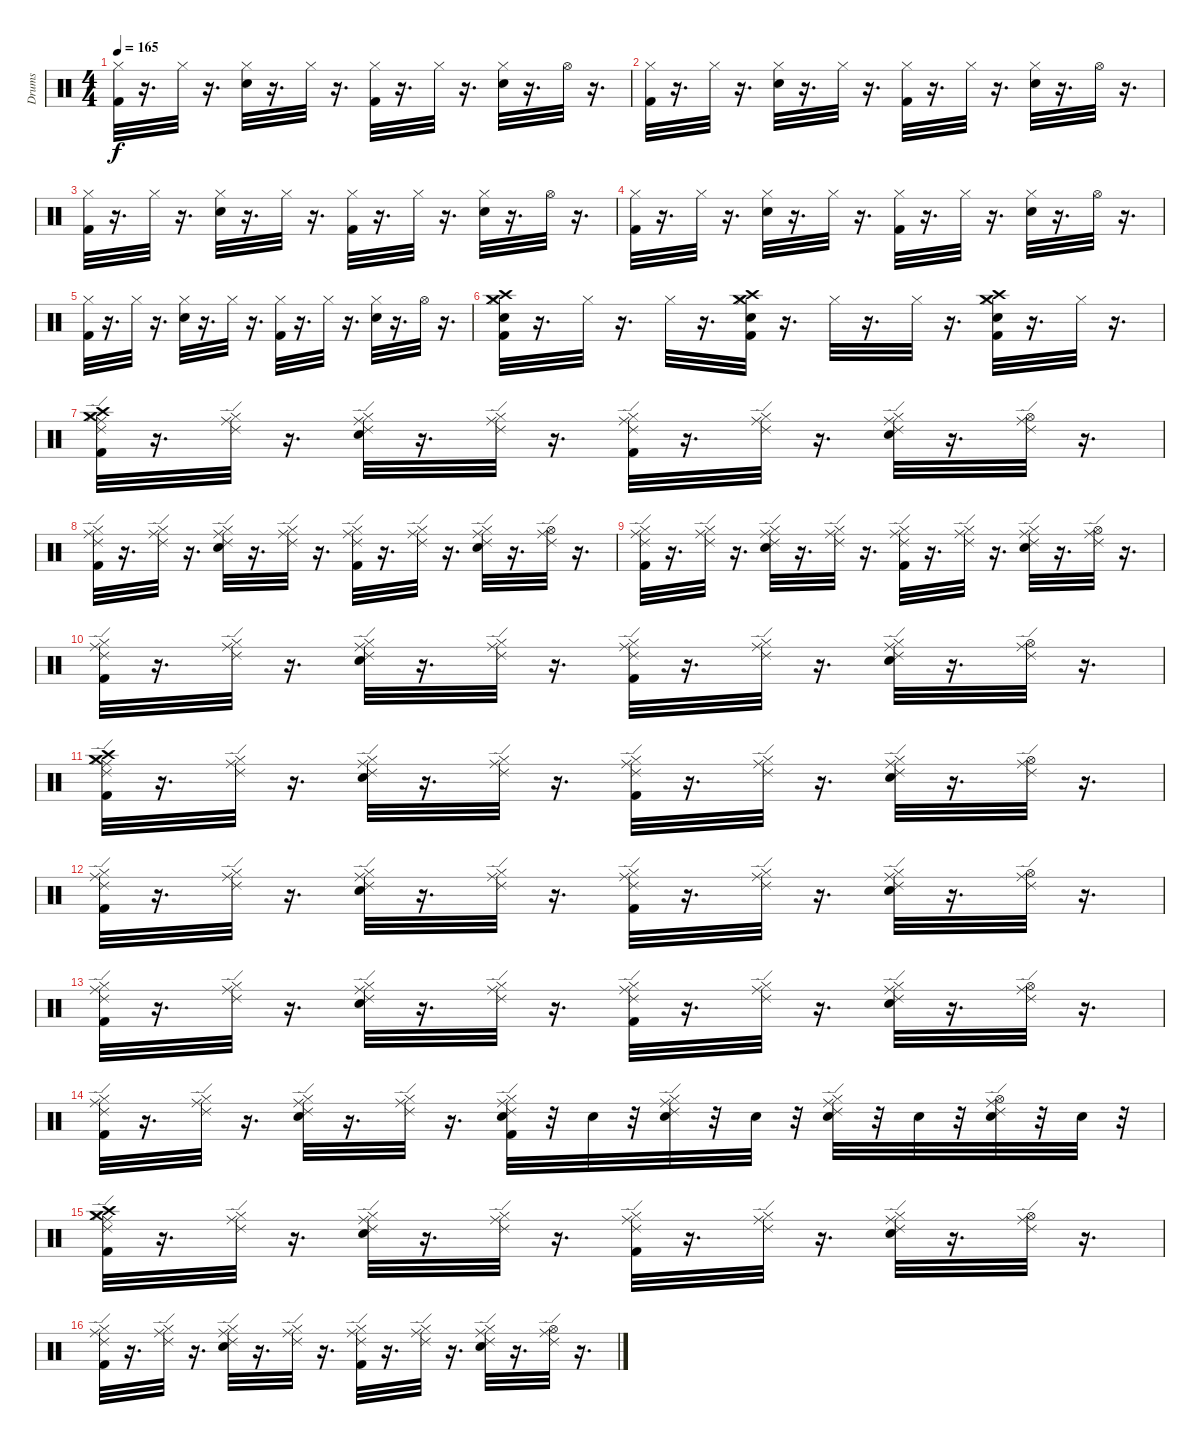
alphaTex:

\track ("Drums" "Drums") {instrument percussion}
\staff {score}
\articulation defaults
\ts (4 4)
\tempo 165
\clef neutral
\ks c
("Kick (hit) 2" "Hi-Hat (closed)").32{dy f} r.16{d} "Hi-Hat (closed)".32 r.16{d} ("Hi-Hat (closed)" "Electric Snare (hit)").32 r.16{d} "Hi-Hat (closed)".32 r.16{d} ("Kick (hit) 2" "Hi-Hat (closed)").32 r.16{d} "Hi-Hat (closed)".32 r.16{d} ("Electric Snare (hit)" "Hi-Hat (closed)").32 r.16{d} "Hi-Hat (open)".32 r.16{d} |
("Kick (hit) 2" "Hi-Hat (closed)").32 r.16{d} "Hi-Hat (closed)".32 r.16{d} ("Hi-Hat (closed)" "Electric Snare (hit)").32 r.16{d} "Hi-Hat (closed)".32 r.16{d} ("Kick (hit) 2" "Hi-Hat (closed)").32 r.16{d} "Hi-Hat (closed)".32 r.16{d} ("Electric Snare (hit)" "Hi-Hat (closed)").32 r.16{d} "Hi-Hat (open)".32 r.16{d} |
("Kick (hit) 2" "Hi-Hat (closed)").32 r.16{d} "Hi-Hat (closed)".32 r.16{d} ("Hi-Hat (closed)" "Electric Snare (hit)").32 r.16{d} "Hi-Hat (closed)".32 r.16{d} ("Kick (hit) 2" "Hi-Hat (closed)").32 r.16{d} "Hi-Hat (closed)".32 r.16{d} ("Electric Snare (hit)" "Hi-Hat (closed)").32 r.16{d} "Hi-Hat (open)".32 r.16{d} |
("Kick (hit) 2" "Hi-Hat (closed)").32 r.16{d} "Hi-Hat (closed)".32 r.16{d} ("Hi-Hat (closed)" "Electric Snare (hit)").32 r.16{d} "Hi-Hat (closed)".32 r.16{d} ("Kick (hit) 2" "Hi-Hat (closed)").32 r.16{d} "Hi-Hat (closed)".32 r.16{d} ("Electric Snare (hit)" "Hi-Hat (closed)").32 r.16{d} "Hi-Hat (open)".32 r.16{d} |
("Kick (hit) 2" "Hi-Hat (closed)").32 r.16{d} "Hi-Hat (closed)".32 r.16{d} ("Hi-Hat (closed)" "Electric Snare (hit)").32 r.16{d} "Hi-Hat (closed)".32 r.16{d} ("Kick (hit) 2" "Hi-Hat (closed)").32 r.16{d} "Hi-Hat (closed)".32 r.16{d} ("Electric Snare (hit)" "Hi-Hat (closed)").32 r.16{d} "Hi-Hat (open)".32 r.16{d} |
("Kick (hit) 2" "Electric Snare (hit)" "Crash medium (hit)" "Crash high (hit)" "Hi-Hat (closed)").32 r.16{d} "Hi-Hat (closed)".32 r.16{d} "Hi-Hat (closed)".32 r.16{d} ("Electric Snare (hit)" "Crash high (hit)" "Crash medium (hit)" "Hi-Hat (closed)" "Kick (hit) 2").32 r.16{d} "Hi-Hat (closed)".32 r.16{d} "Hi-Hat (closed)".32 r.16{d} ("Kick (hit) 2" "Electric Snare (hit)" "Crash high (hit)" "Crash medium (hit)" "Hi-Hat (closed)").32 r.16{d} "Hi-Hat (closed)".32 r.16{d} |
("Ride (edge) 2" "Ride (middle)" "Kick (hit) 2" "Hi-Hat (closed)" "Crash high (hit)" "Crash medium (hit)").32 r.16{d} ("Ride (edge) 2" "Ride (middle)" "Hi-Hat (closed)").32 r.16{d} ("Ride (edge) 2" "Ride (middle)" "Hi-Hat (closed)" "Electric Snare (hit)").32 r.16{d} ("Ride (edge) 2" "Ride (middle)" "Hi-Hat (closed)").32 r.16{d} ("Ride (edge) 2" "Ride (middle)" "Kick (hit) 2" "Hi-Hat (closed)").32 r.16{d} ("Ride (edge) 2" "Ride (middle)" "Hi-Hat (closed)").32 r.16{d} ("Ride (edge) 2" "Ride (middle)" "Electric Snare (hit)" "Hi-Hat (closed)").32 r.16{d} ("Ride (edge) 2" "Ride (middle)" "Hi-Hat (open)").32 r.16{d} |
("Ride (edge) 2" "Ride (middle)" "Kick (hit) 2" "Hi-Hat (closed)").32 r.16{d} ("Ride (edge) 2" "Ride (middle)" "Hi-Hat (closed)").32 r.16{d} ("Ride (edge) 2" "Ride (middle)" "Hi-Hat (closed)" "Electric Snare (hit)").32 r.16{d} ("Ride (edge) 2" "Hi-Hat (closed)" "Ride (middle)").32 r.16{d} ("Ride (middle)" "Ride (edge) 2" "Kick (hit) 2" "Hi-Hat (closed)").32 r.16{d} ("Ride (middle)" "Ride (edge) 2" "Hi-Hat (closed)").32 r.16{d} ("Ride (middle)" "Ride (edge) 2" "Electric Snare (hit)" "Hi-Hat (closed)").32 r.16{d} ("Ride (middle)" "Ride (edge) 2" "Hi-Hat (open)").32 r.16{d} |
("Kick (hit) 2" "Hi-Hat (closed)" "Ride (edge) 2" "Ride (middle)").32 r.16{d} ("Hi-Hat (closed)" "Ride (edge) 2" "Ride (middle)").32 r.16{d} ("Ride (edge) 2" "Ride (middle)" "Hi-Hat (closed)" "Electric Snare (hit)").32 r.16{d} ("Ride (edge) 2" "Hi-Hat (closed)" "Ride (middle)").32 r.16{d} ("Kick (hit) 2" "Ride (edge) 2" "Ride (middle)" "Hi-Hat (closed)").32 r.16{d} ("Hi-Hat (closed)" "Ride (edge) 2" "Ride (middle)").32 r.16{d} ("Electric Snare (hit)" "Ride (edge) 2" "Ride (middle)" "Hi-Hat (closed)").32 r.16{d} ("Hi-Hat (open)" "Ride (middle)" "Ride (edge) 2").32 r.16{d} |
("Hi-Hat (closed)" "Kick (hit) 2" "Ride (edge) 2" "Ride (middle)").32 r.16{d} ("Ride (middle)" "Hi-Hat (closed)" "Ride (edge) 2").32 r.16{d} ("Electric Snare (hit)" "Hi-Hat (closed)" "Ride (edge) 2" "Ride (middle)").32 r.16{d} ("Ride (edge) 2" "Ride (middle)" "Hi-Hat (closed)").32 r.16{d} ("Ride (middle)" "Kick (hit) 2" "Hi-Hat (closed)" "Ride (edge) 2").32 r.16{d} ("Ride (middle)" "Ride (edge) 2" "Hi-Hat (closed)").32 r.16{d} ("Electric Snare (hit)" "Hi-Hat (closed)" "Ride (middle)" "Ride (edge) 2").32 r.16{d} ("Hi-Hat (open)" "Ride (middle)" "Ride (edge) 2").32 r.16{d} |
("Kick (hit) 2" "Hi-Hat (closed)" "Crash high (hit)" "Crash medium (hit)" "Ride (middle)" "Ride (edge) 2").32 r.16{d} ("Ride (middle)" "Hi-Hat (closed)" "Ride (edge) 2").32 r.16{d} ("Ride (middle)" "Electric Snare (hit)" "Hi-Hat (closed)" "Ride (edge) 2").32 r.16{d} ("Ride (edge) 2" "Ride (middle)" "Hi-Hat (closed)").32 r.16{d} ("Ride (edge) 2" "Kick (hit) 2" "Ride (middle)" "Hi-Hat (closed)").32 r.16{d} ("Ride (edge) 2" "Hi-Hat (closed)" "Ride (middle)").32 r.16{d} ("Hi-Hat (closed)" "Electric Snare (hit)" "Ride (edge) 2" "Ride (middle)").32 r.16{d} ("Ride (edge) 2" "Ride (middle)" "Hi-Hat (open)").32 r.16{d} |
("Ride (edge) 2" "Kick (hit) 2" "Hi-Hat (closed)" "Ride (middle)").32 r.16{d} ("Ride (edge) 2" "Hi-Hat (closed)" "Ride (middle)").32 r.16{d} ("Ride (middle)" "Ride (edge) 2" "Hi-Hat (closed)" "Electric Snare (hit)").32 r.16{d} ("Hi-Hat (closed)" "Ride (middle)" "Ride (edge) 2").32 r.16{d} ("Hi-Hat (closed)" "Kick (hit) 2" "Ride (edge) 2" "Ride (middle)").32 r.16{d} ("Ride (middle)" "Hi-Hat (closed)" "Ride (edge) 2").32 r.16{d} ("Electric Snare (hit)" "Ride (middle)" "Ride (edge) 2" "Hi-Hat (closed)").32 r.16{d} ("Ride (middle)" "Hi-Hat (open)" "Ride (edge) 2").32 r.16{d} |
("Hi-Hat (closed)" "Kick (hit) 2" "Ride (middle)" "Ride (edge) 2").32 r.16{d} ("Ride (middle)" "Ride (edge) 2" "Hi-Hat (closed)").32 r.16{d} ("Ride (edge) 2" "Electric Snare (hit)" "Ride (middle)" "Hi-Hat (closed)").32 r.16{d} ("Ride (edge) 2" "Ride (middle)" "Hi-Hat (closed)").32 r.16{d} ("Hi-Hat (closed)" "Kick (hit) 2" "Ride (edge) 2" "Ride (middle)").32 r.16{d} ("Ride (edge) 2" "Ride (middle)" "Hi-Hat (closed)").32 r.16{d} ("Ride (middle)" "Electric Snare (hit)" "Ride (edge) 2" "Hi-Hat (closed)").32 r.16{d} ("Ride (edge) 2" "Hi-Hat (open)" "Ride (middle)").32 r.16{d} |
("Hi-Hat (closed)" "Ride (edge) 2" "Ride (middle)" "Kick (hit) 2").32 r.16{d} ("Hi-Hat (closed)" "Ride (edge) 2" "Ride (middle)").32 r.16{d} ("Hi-Hat (closed)" "Ride (edge) 2" "Ride (middle)" "Electric Snare (hit)").32 r.16{d} ("Ride (edge) 2" "Hi-Hat (closed)" "Ride (middle)").32 r.16{d} ("Ride (edge) 2" "Kick (hit) 2" "Ride (middle)" "Hi-Hat (closed)" "Electric Snare (hit)").32 r.32 "Electric Snare (hit)".32 r.32 ("Hi-Hat (closed)" "Ride (middle)" "Ride (edge) 2" "Electric Snare (hit)").32 r.32 "Electric Snare (hit)".32 r.32 ("Ride (edge) 2" "Ride (middle)" "Hi-Hat (closed)" "Electric Snare (hit)").32 r.32 "Electric Snare (hit)".32 r.32 ("Hi-Hat (open)" "Electric Snare (hit)" "Ride (middle)" "Ride (edge) 2").32 r.32 "Electric Snare (hit)".32 r.32 |
("Ride (edge) 2" "Ride (middle)" "Kick (hit) 2" "Hi-Hat (closed)" "Crash high (hit)" "Crash medium (hit)").32 r.16{d} ("Ride (edge) 2" "Ride (middle)" "Hi-Hat (closed)").32 r.16{d} ("Ride (edge) 2" "Ride (middle)" "Hi-Hat (closed)" "Electric Snare (hit)").32 r.16{d} ("Ride (edge) 2" "Ride (middle)" "Hi-Hat (closed)").32 r.16{d} ("Ride (edge) 2" "Ride (middle)" "Kick (hit) 2" "Hi-Hat (closed)").32 r.16{d} ("Ride (edge) 2" "Ride (middle)" "Hi-Hat (closed)").32 r.16{d} ("Ride (edge) 2" "Ride (middle)" "Electric Snare (hit)" "Hi-Hat (closed)").32 r.16{d} ("Ride (edge) 2" "Ride (middle)" "Hi-Hat (open)").32 r.16{d} |
("Ride (edge) 2" "Ride (middle)" "Kick (hit) 2" "Hi-Hat (closed)").32 r.16{d} ("Ride (edge) 2" "Ride (middle)" "Hi-Hat (closed)").32 r.16{d} ("Ride (edge) 2" "Ride (middle)" "Hi-Hat (closed)" "Electric Snare (hit)").32 r.16{d} ("Ride (edge) 2" "Hi-Hat (closed)" "Ride (middle)").32 r.16{d} ("Ride (middle)" "Ride (edge) 2" "Kick (hit) 2" "Hi-Hat (closed)").32 r.16{d} ("Ride (middle)" "Ride (edge) 2" "Hi-Hat (closed)").32 r.16{d} ("Ride (middle)" "Ride (edge) 2" "Electric Snare (hit)" "Hi-Hat (closed)").32 r.16{d} ("Ride (middle)" "Ride (edge) 2" "Hi-Hat (open)").32 r.16{d}
